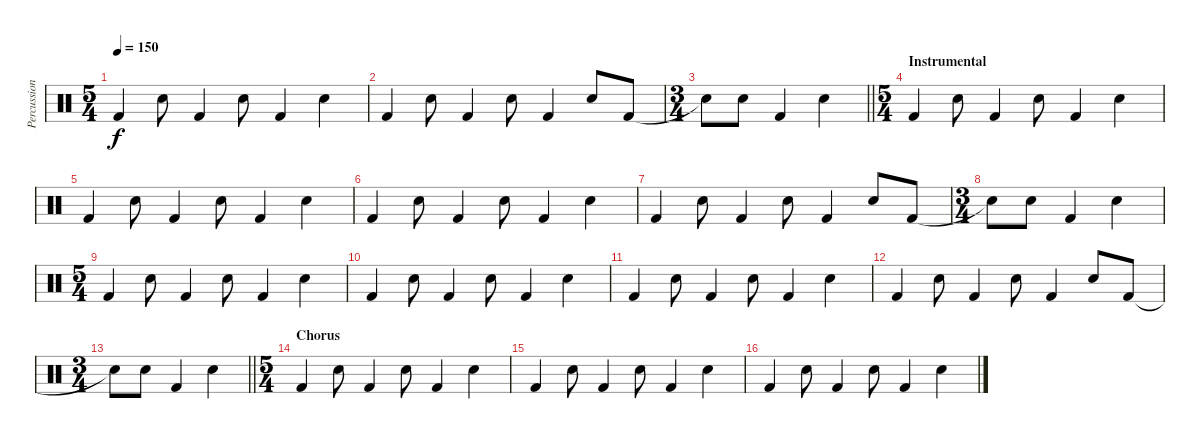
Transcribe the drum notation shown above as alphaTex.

\track ("Percussion" "Percussion") {instrument percussion}
\staff {score}
\articulation defaults
\ts (5 4)
\tempo 150
\clef neutral
\ks c "Kick (hit) 2".4{dy f} "Snare (hit) 2".8 "Kick (hit) 2".4 "Snare (hit) 2".8 "Kick (hit) 2".4 "Snare (hit) 2".4
|
"Kick (hit) 2".4 "Snare (hit) 2".8 "Kick (hit) 2".4 "Snare (hit) 2".8 "Kick (hit) 2".4 "Snare (hit) 2".8 "Kick (hit) 2".8 |
\ts (3 4)
\barLineRight lightlight "Snare (hit)"{t}.8 "Snare (hit) 2".8 "Kick (hit) 2".4 "Snare (hit) 2".4
|
\ts (5 4)
\section ("" "Instrumental")
"Kick (hit) 2".4 "Snare (hit) 2".8 "Kick (hit) 2".4 "Snare (hit) 2".8 "Kick (hit) 2".4 "Snare (hit) 2".4 |
"Kick (hit) 2".4 "Snare (hit) 2".8 "Kick (hit) 2".4 "Snare (hit) 2".8 "Kick (hit) 2".4 "Snare (hit) 2".4 |
"Kick (hit) 2".4 "Snare (hit) 2".8 "Kick (hit) 2".4 "Snare (hit) 2".8 "Kick (hit) 2".4 "Snare (hit) 2".4 |
"Kick (hit) 2".4 "Snare (hit) 2".8 "Kick (hit) 2".4 "Snare (hit) 2".8 "Kick (hit) 2".4 "Snare (hit) 2".8 "Kick (hit) 2".8 |
\ts (3 4)
"Snare (hit)"{t}.8 "Snare (hit) 2".8 "Kick (hit) 2".4 "Snare (hit) 2".4 |
\ts (5 4)
"Kick (hit) 2".4 "Snare (hit) 2".8 "Kick (hit) 2".4 "Snare (hit) 2".8 "Kick (hit) 2".4 "Snare (hit) 2".4 |
"Kick (hit) 2".4 "Snare (hit) 2".8 "Kick (hit) 2".4 "Snare (hit) 2".8 "Kick (hit) 2".4 "Snare (hit) 2".4 |
"Kick (hit) 2".4 "Snare (hit) 2".8 "Kick (hit) 2".4 "Snare (hit) 2".8 "Kick (hit) 2".4 "Snare (hit) 2".4 |
"Kick (hit) 2".4 "Snare (hit) 2".8 "Kick (hit) 2".4 "Snare (hit) 2".8 "Kick (hit) 2".4 "Snare (hit) 2".8 "Kick (hit) 2".8 |
\ts (3 4)
\barLineRight lightlight "Snare (hit)"{t}.8 "Snare (hit) 2".8 "Kick (hit) 2".4 "Snare (hit) 2".4
|
\ts (5 4)
\section ("" "Chorus")
"Kick (hit) 2".4 "Snare (hit) 2".8 "Kick (hit) 2".4 "Snare (hit) 2".8 "Kick (hit) 2".4 "Snare (hit) 2".4 |
"Kick (hit) 2".4 "Snare (hit) 2".8 "Kick (hit) 2".4 "Snare (hit) 2".8 "Kick (hit) 2".4 "Snare (hit) 2".4 |
"Kick (hit) 2".4 "Snare (hit) 2".8 "Kick (hit) 2".4 "Snare (hit) 2".8 "Kick (hit) 2".4 "Snare (hit) 2".4
